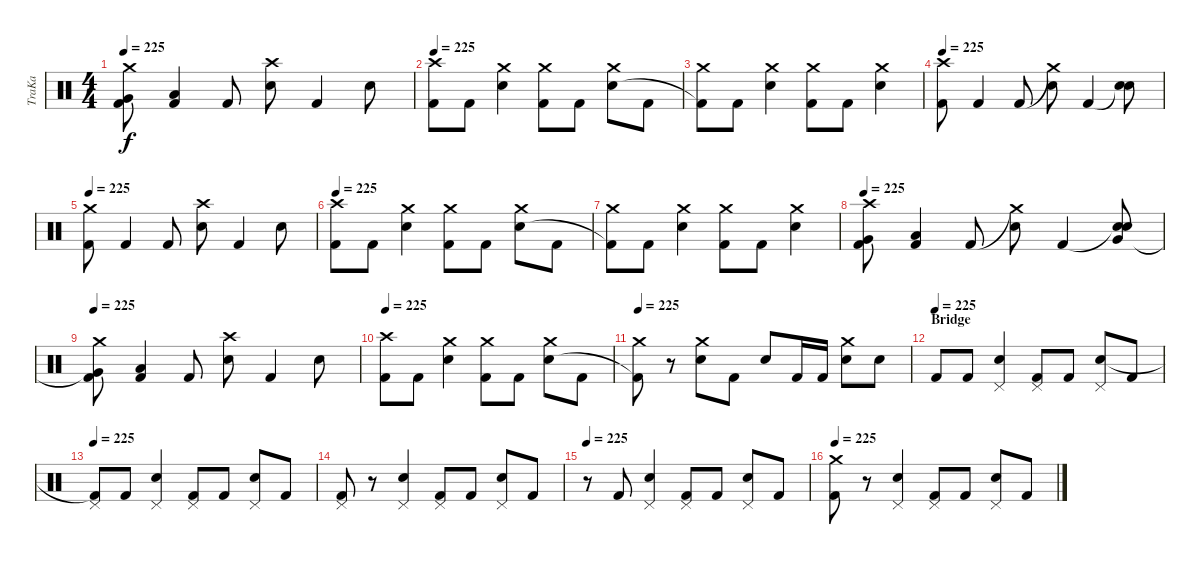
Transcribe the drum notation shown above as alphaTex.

\track ("TraKa" "TraKa") {instrument percussion}
\staff {score}
\articulation defaults
\ts (4 4)
\tempo 225
\clef neutral
\ks c
("Crash medium (hit)" "Very Low Tom (hit)"{t} "Kick (hit) 2").8{dy f} ("Low Tom (hit)" "Kick (hit) 2").4 "Kick (hit) 2".8 ("Crash high (hit)" "Electric Snare (hit)").8 "Kick (hit) 2".4 "Electric Snare (hit)".8 |
\tempo 225
("Crash high (hit)" "Kick (hit) 2").8 "Kick (hit) 2".8 ("Crash medium (hit)" "Electric Snare (hit)").4 ("Crash medium (hit)" "Kick (hit) 2").8 "Kick (hit) 2".8 ("Crash medium (hit)" "Electric Snare (hit)").8 "Kick (hit) 2".8 |
("Crash medium (hit)" "Kick (hit) 2"{t}).8 "Kick (hit) 2".8 ("Crash medium (hit)" "Electric Snare (hit)").4 ("Crash medium (hit)" "Kick (hit) 2").8 "Kick (hit) 2".8 ("Crash medium (hit)" "Electric Snare (hit)").4 |
\tempo 225
("Crash high (hit)" "Kick (hit) 2").8 "Kick (hit) 2".4 "Kick (hit) 2".8 ("Crash medium (hit)"{t} "Electric Snare (hit)").8 "Kick (hit) 2".4 ("Snare (hit)"{t} "Electric Snare (hit)").8 |
\tempo 225
("Crash medium (hit)" "Kick (hit) 2").8 "Kick (hit) 2".4 "Kick (hit) 2".8 ("Crash high (hit)" "Electric Snare (hit)").8 "Kick (hit) 2".4 "Electric Snare (hit)".8 |
\tempo 225
("Crash high (hit)" "Kick (hit) 2").8 "Kick (hit) 2".8 ("Crash medium (hit)" "Electric Snare (hit)").4 ("Crash medium (hit)" "Kick (hit) 2").8 "Kick (hit) 2".8 ("Crash medium (hit)" "Electric Snare (hit)").8 "Kick (hit) 2".8 |
("Crash medium (hit)" "Kick (hit) 2"{t}).8 "Kick (hit) 2".8 ("Crash medium (hit)" "Electric Snare (hit)").4 ("Crash medium (hit)" "Kick (hit) 2").8 "Kick (hit) 2".8 ("Crash medium (hit)" "Electric Snare (hit)").4 |
\tempo 225
("Crash high (hit)" "Very Low Tom (hit)" "Kick (hit) 2").8 ("Low Tom (hit)" "Kick (hit) 2").4 "Kick (hit) 2".8 ("Crash medium (hit)"{t} "Electric Snare (hit)").8 "Kick (hit) 2".4 ("Snare (hit)"{t} "Very Low Tom (hit)" "Electric Snare (hit)").8 |
\tempo 225
("Crash medium (hit)" "Very Low Tom (hit)"{t} "Kick (hit) 2").8 ("Low Tom (hit)" "Kick (hit) 2").4 "Kick (hit) 2".8 ("Crash high (hit)" "Electric Snare (hit)").8 "Kick (hit) 2".4 "Electric Snare (hit)".8 |
\tempo 225
("Crash high (hit)" "Kick (hit) 2").8 "Kick (hit) 2".8 ("Crash medium (hit)" "Electric Snare (hit)").4 ("Crash medium (hit)" "Kick (hit) 2").8 "Kick (hit) 2".8 ("Crash medium (hit)" "Electric Snare (hit)").8 "Kick (hit) 2".8 |
\tempo 225
("Crash medium (hit)" "Kick (hit) 2"{t}).8 r.8 ("Crash medium (hit)" "Electric Snare (hit)").8 "Kick (hit) 2".8 "Electric Snare (hit)".8 "Kick (hit) 2".16 "Kick (hit) 2".16 ("Crash medium (hit)" "Electric Snare (hit)").8 "Electric Snare (hit)".8 |
\section ("" "Bridge")
\tempo (225)
"Kick (hit) 2".8 "Kick (hit) 2".8 ("Pedal Hi-Hat (hit)" "Electric Snare (hit)").4 ("Pedal Hi-Hat (hit)" "Kick (hit) 2").8 "Kick (hit) 2".8 ("Pedal Hi-Hat (hit)" "Electric Snare (hit)").8 "Kick (hit) 2".8 |
\tempo 225
("Pedal Hi-Hat (hit)" "Kick (hit) 2"{t}).8 "Kick (hit) 2".8 ("Pedal Hi-Hat (hit)" "Electric Snare (hit)").4 ("Pedal Hi-Hat (hit)" "Kick (hit) 2").8 "Kick (hit) 2".8 ("Pedal Hi-Hat (hit)" "Electric Snare (hit)").8 "Kick (hit) 2".8 |
("Pedal Hi-Hat (hit)" "Kick (hit) 2").8 r.8 ("Pedal Hi-Hat (hit)" "Electric Snare (hit)").4 ("Pedal Hi-Hat (hit)" "Kick (hit) 2").8 "Kick (hit) 2".8 ("Pedal Hi-Hat (hit)" "Electric Snare (hit)").8 "Kick (hit) 2".8 |
\tempo 225
r.8 "Kick (hit) 2".8 ("Pedal Hi-Hat (hit)" "Electric Snare (hit)").4 ("Pedal Hi-Hat (hit)" "Kick (hit) 2").8 "Kick (hit) 2".8 ("Pedal Hi-Hat (hit)" "Electric Snare (hit)").8 "Kick (hit) 2".8 |
\tempo 225
("Crash medium (hit)" "Kick (hit) 2").8 r.8 ("Pedal Hi-Hat (hit)" "Electric Snare (hit)").4 ("Pedal Hi-Hat (hit)" "Kick (hit) 2").8 "Kick (hit) 2".8 ("Pedal Hi-Hat (hit)" "Electric Snare (hit)").8 "Kick (hit) 2".8
